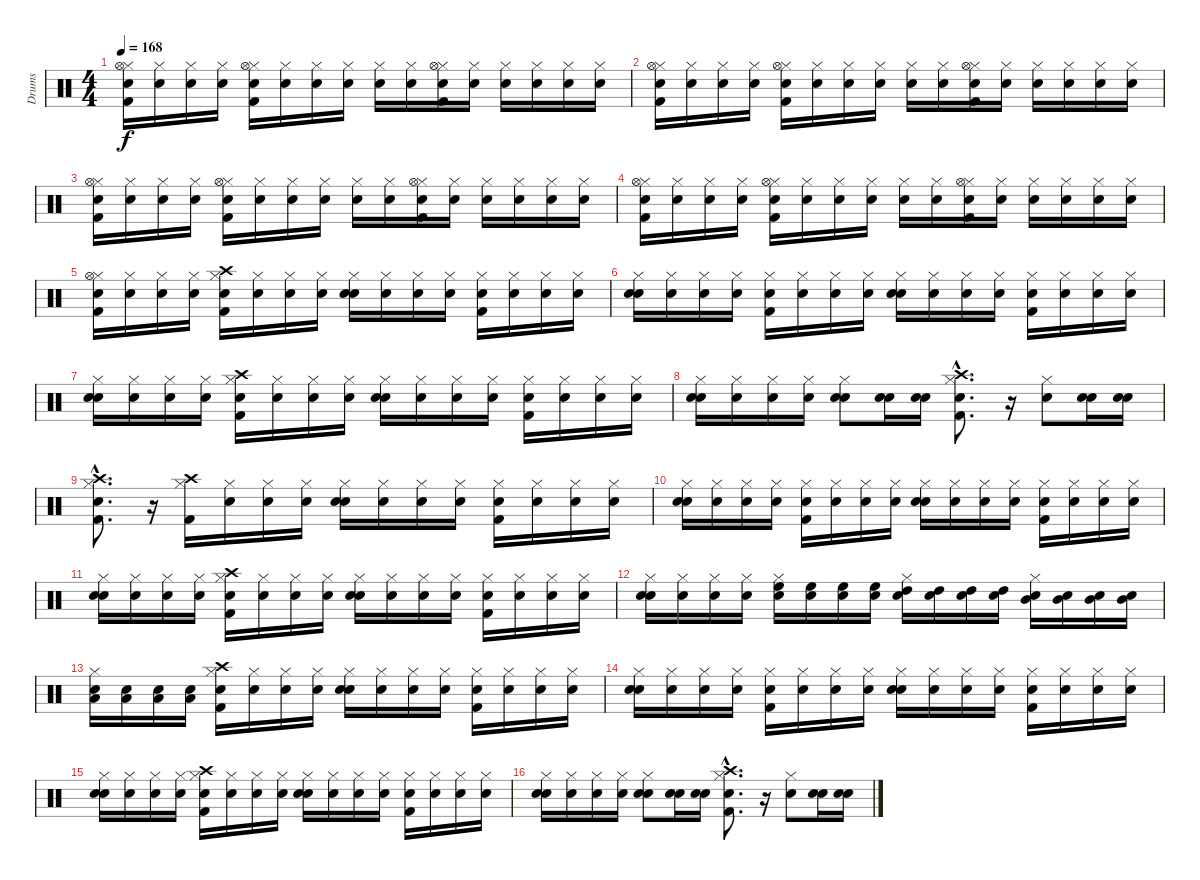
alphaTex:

\track ("Drums" "Drums") {instrument percussion}
\staff {score}
\articulation defaults
\ts (4 4)
\tempo 168
\clef neutral
\ks c
("Snare (hit)" "Kick (hit) 2" "Hi-Hat (closed)" "Hi-Hat (open)").16{dy f} ("Snare (hit)" "Hi-Hat (closed)").16 ("Snare (hit)" "Hi-Hat (closed)").16 ("Snare (hit)" "Hi-Hat (closed)").16 ("Snare (hit)" "Kick (hit) 2" "Hi-Hat (closed)" "Hi-Hat (open)").16 ("Snare (hit)" "Hi-Hat (closed)").16 ("Snare (hit)" "Hi-Hat (closed)").16 ("Snare (hit)" "Hi-Hat (closed)").16 ("Snare (hit)" "Hi-Hat (closed)").16 ("Snare (hit)" "Hi-Hat (closed)").16 ("Snare (hit)" "Kick (hit) 2" "Hi-Hat (closed)" "Hi-Hat (open)").16 ("Snare (hit)" "Hi-Hat (closed)").16 ("Snare (hit)" "Hi-Hat (closed)").16 ("Snare (hit)" "Hi-Hat (closed)").16 ("Snare (hit)" "Hi-Hat (closed)").16 ("Snare (hit)" "Hi-Hat (closed)").16 |
("Snare (hit)" "Kick (hit) 2" "Hi-Hat (closed)" "Hi-Hat (open)").16 ("Snare (hit)" "Hi-Hat (closed)").16 ("Snare (hit)" "Hi-Hat (closed)").16 ("Snare (hit)" "Hi-Hat (closed)").16 ("Snare (hit)" "Kick (hit) 2" "Hi-Hat (closed)" "Hi-Hat (open)").16 ("Snare (hit)" "Hi-Hat (closed)").16 ("Snare (hit)" "Hi-Hat (closed)").16 ("Snare (hit)" "Hi-Hat (closed)").16 ("Snare (hit)" "Hi-Hat (closed)").16 ("Snare (hit)" "Hi-Hat (closed)").16 ("Snare (hit)" "Kick (hit) 2" "Hi-Hat (closed)" "Hi-Hat (open)").16 ("Snare (hit)" "Hi-Hat (closed)").16 ("Snare (hit)" "Hi-Hat (closed)").16 ("Snare (hit)" "Hi-Hat (closed)").16 ("Snare (hit)" "Hi-Hat (closed)").16 ("Snare (hit)" "Hi-Hat (closed)").16 |
("Snare (hit)" "Kick (hit) 2" "Hi-Hat (closed)" "Hi-Hat (open)").16 ("Snare (hit)" "Hi-Hat (closed)").16 ("Snare (hit)" "Hi-Hat (closed)").16 ("Snare (hit)" "Hi-Hat (closed)").16 ("Snare (hit)" "Kick (hit) 2" "Hi-Hat (closed)" "Hi-Hat (open)").16 ("Snare (hit)" "Hi-Hat (closed)").16 ("Snare (hit)" "Hi-Hat (closed)").16 ("Snare (hit)" "Hi-Hat (closed)").16 ("Snare (hit)" "Hi-Hat (closed)").16 ("Snare (hit)" "Hi-Hat (closed)").16 ("Snare (hit)" "Kick (hit) 2" "Hi-Hat (closed)" "Hi-Hat (open)").16 ("Snare (hit)" "Hi-Hat (closed)").16 ("Snare (hit)" "Hi-Hat (closed)").16 ("Snare (hit)" "Hi-Hat (closed)").16 ("Snare (hit)" "Hi-Hat (closed)").16 ("Snare (hit)" "Hi-Hat (closed)").16 |
("Snare (hit)" "Kick (hit) 2" "Hi-Hat (closed)" "Hi-Hat (open)").16 ("Snare (hit)" "Hi-Hat (closed)").16 ("Snare (hit)" "Hi-Hat (closed)").16 ("Snare (hit)" "Hi-Hat (closed)").16 ("Snare (hit)" "Kick (hit) 2" "Hi-Hat (closed)" "Hi-Hat (open)").16 ("Snare (hit)" "Hi-Hat (closed)").16 ("Snare (hit)" "Hi-Hat (closed)").16 ("Snare (hit)" "Hi-Hat (closed)").16 ("Snare (hit)" "Hi-Hat (closed)").16 ("Snare (hit)" "Hi-Hat (closed)").16 ("Snare (hit)" "Kick (hit) 2" "Hi-Hat (closed)" "Hi-Hat (open)").16 ("Snare (hit)" "Hi-Hat (closed)").16 ("Snare (hit)" "Hi-Hat (closed)").16 ("Snare (hit)" "Hi-Hat (closed)").16 ("Snare (hit)" "Hi-Hat (closed)").16 ("Snare (hit)" "Hi-Hat (closed)").16 |
("Snare (hit)" "Kick (hit) 2" "Hi-Hat (closed)" "Hi-Hat (open)").16 ("Snare (hit)" "Hi-Hat (closed)").16 ("Snare (hit)" "Hi-Hat (closed)").16 ("Snare (hit)" "Hi-Hat (closed)").16 ("Snare (hit)" "Kick (hit) 2" "Hi-Hat (closed)" "Crash high (hit)").16 ("Snare (hit)" "Hi-Hat (closed)").16 ("Snare (hit)" "Hi-Hat (closed)").16 ("Snare (hit)" "Hi-Hat (closed)").16 ("Snare (hit)" "Snare (hit) 2" "Hi-Hat (closed)").16 ("Snare (hit)" "Hi-Hat (closed)").16 ("Snare (hit)" "Hi-Hat (closed)").16 ("Snare (hit)" "Hi-Hat (closed)").16 ("Snare (hit)" "Kick (hit) 2" "Hi-Hat (closed)").16 ("Snare (hit)" "Hi-Hat (closed)").16 ("Snare (hit)" "Hi-Hat (closed)").16 ("Snare (hit)" "Hi-Hat (closed)").16 |
("Snare (hit)" "Snare (hit) 2" "Hi-Hat (closed)").16 ("Snare (hit)" "Hi-Hat (closed)").16 ("Snare (hit)" "Hi-Hat (closed)").16 ("Snare (hit)" "Hi-Hat (closed)").16 ("Snare (hit)" "Kick (hit) 2" "Hi-Hat (closed)").16 ("Snare (hit)" "Hi-Hat (closed)").16 ("Snare (hit)" "Hi-Hat (closed)").16 ("Snare (hit)" "Hi-Hat (closed)").16 ("Snare (hit)" "Snare (hit) 2" "Hi-Hat (closed)").16 ("Snare (hit)" "Hi-Hat (closed)").16 ("Snare (hit)" "Hi-Hat (closed)").16 ("Snare (hit)" "Hi-Hat (closed)").16 ("Snare (hit)" "Kick (hit) 2" "Hi-Hat (closed)").16 ("Snare (hit)" "Hi-Hat (closed)").16 ("Snare (hit)" "Hi-Hat (closed)").16 ("Snare (hit)" "Hi-Hat (closed)").16 |
("Snare (hit)" "Snare (hit) 2" "Hi-Hat (closed)").16 ("Snare (hit)" "Hi-Hat (closed)").16 ("Snare (hit)" "Hi-Hat (closed)").16 ("Snare (hit)" "Hi-Hat (closed)").16 ("Snare (hit)" "Kick (hit) 2" "Hi-Hat (closed)" "Crash high (hit)").16 ("Snare (hit)" "Hi-Hat (closed)").16 ("Snare (hit)" "Hi-Hat (closed)").16 ("Snare (hit)" "Hi-Hat (closed)").16 ("Snare (hit)" "Snare (hit) 2" "Hi-Hat (closed)").16 ("Snare (hit)" "Hi-Hat (closed)").16 ("Snare (hit)" "Hi-Hat (closed)").16 ("Snare (hit)" "Hi-Hat (closed)").16 ("Snare (hit)" "Kick (hit) 2" "Hi-Hat (closed)").16 ("Snare (hit)" "Hi-Hat (closed)").16 ("Snare (hit)" "Hi-Hat (closed)").16 ("Snare (hit)" "Hi-Hat (closed)").16 |
("Snare (hit)" "Snare (hit) 2" "Hi-Hat (closed)").16 ("Snare (hit)" "Hi-Hat (closed)").16 ("Snare (hit)" "Hi-Hat (closed)").16 ("Snare (hit)" "Hi-Hat (closed)").16 ("Snare (hit)" "Snare (hit) 2" "Hi-Hat (closed)").8 ("Snare (hit)" "Snare (hit) 2").16 ("Snare (hit)" "Snare (hit) 2").16 ("Snare (hit)"{hac} "Kick (hit) 2"{hac} "Hi-Hat (closed)"{hac} "Crash high (hit)"{hac}).8{d} r.16 ("Snare (hit) 2" "Hi-Hat (closed)").8 ("Snare (hit)" "Snare (hit) 2").16 ("Snare (hit)" "Snare (hit) 2").16 |
("Snare (hit)"{hac} "Kick (hit) 2"{hac} "Hi-Hat (closed)"{hac} "Crash high (hit)"{hac}).8{d} r.16 ("Kick (hit) 2" "Hi-Hat (closed)" "Crash high (hit)").16 ("Snare (hit)" "Hi-Hat (closed)").16 ("Snare (hit)" "Hi-Hat (closed)").16 ("Snare (hit)" "Hi-Hat (closed)").16 ("Snare (hit)" "Snare (hit) 2" "Hi-Hat (closed)").16 ("Snare (hit)" "Hi-Hat (closed)").16 ("Snare (hit)" "Hi-Hat (closed)").16 ("Snare (hit)" "Hi-Hat (closed)").16 ("Snare (hit)" "Kick (hit) 2" "Hi-Hat (closed)").16 ("Snare (hit)" "Hi-Hat (closed)").16 ("Snare (hit)" "Hi-Hat (closed)").16 ("Snare (hit)" "Hi-Hat (closed)").16 |
("Snare (hit)" "Snare (hit) 2" "Hi-Hat (closed)").16 ("Snare (hit)" "Hi-Hat (closed)").16 ("Snare (hit)" "Hi-Hat (closed)").16 ("Snare (hit)" "Hi-Hat (closed)").16 ("Snare (hit)" "Kick (hit) 2" "Hi-Hat (closed)").16 ("Snare (hit)" "Hi-Hat (closed)").16 ("Snare (hit)" "Hi-Hat (closed)").16 ("Snare (hit)" "Hi-Hat (closed)").16 ("Snare (hit)" "Snare (hit) 2" "Hi-Hat (closed)").16 ("Snare (hit)" "Hi-Hat (closed)").16 ("Snare (hit)" "Hi-Hat (closed)").16 ("Snare (hit)" "Hi-Hat (closed)").16 ("Snare (hit)" "Kick (hit) 2" "Hi-Hat (closed)").16 ("Snare (hit)" "Hi-Hat (closed)").16 ("Snare (hit)" "Hi-Hat (closed)").16 ("Snare (hit)" "Hi-Hat (closed)").16 |
("Snare (hit)" "Snare (hit) 2" "Hi-Hat (closed)").16 ("Snare (hit)" "Hi-Hat (closed)").16 ("Snare (hit)" "Hi-Hat (closed)").16 ("Snare (hit)" "Hi-Hat (closed)").16 ("Snare (hit)" "Kick (hit) 2" "Hi-Hat (closed)" "Crash high (hit)").16 ("Snare (hit)" "Hi-Hat (closed)").16 ("Snare (hit)" "Hi-Hat (closed)").16 ("Snare (hit)" "Hi-Hat (closed)").16 ("Snare (hit)" "Snare (hit) 2" "Hi-Hat (closed)").16 ("Snare (hit)" "Hi-Hat (closed)").16 ("Snare (hit)" "Hi-Hat (closed)").16 ("Snare (hit)" "Hi-Hat (closed)").16 ("Snare (hit)" "Kick (hit) 2" "Hi-Hat (closed)").16 ("Snare (hit)" "Hi-Hat (closed)").16 ("Snare (hit)" "Hi-Hat (closed)").16 ("Snare (hit)" "Hi-Hat (closed)").16 |
("Snare (hit)" "Snare (hit) 2" "Hi-Hat (closed)").16 ("Snare (hit)" "Hi-Hat (closed)").16 ("Snare (hit)" "Hi-Hat (closed)").16 ("Snare (hit)" "Hi-Hat (closed)").16 ("Snare (hit)" "Hi-Hat (closed)" "High Floor Tom (hit)").16 ("Snare (hit)" "High Floor Tom (hit)").16 ("Snare (hit)" "High Floor Tom (hit)").16 ("Snare (hit)" "High Floor Tom (hit)").16 ("Snare (hit)" "Hi-Hat (closed)" "High Tom (hit)").16 ("Snare (hit)" "High Tom (hit)").16 ("Snare (hit)" "High Tom (hit)").16 ("Snare (hit)" "High Tom (hit)").16 ("Snare (hit)" "Hi-Hat (closed)" "Mid Tom (hit)").16 ("Snare (hit)" "Mid Tom (hit)").16 ("Snare (hit)" "Mid Tom (hit)").16 ("Snare (hit)" "Mid Tom (hit)").16 |
("Snare (hit)" "Hi-Hat (closed)" "Low Tom (hit)").16 ("Snare (hit)" "Low Tom (hit)").16 ("Snare (hit)" "Low Tom (hit)").16 ("Snare (hit)" "Low Tom (hit)").16 ("Snare (hit)" "Kick (hit) 2" "Hi-Hat (closed)" "Crash high (hit)").16 ("Snare (hit)" "Hi-Hat (closed)").16 ("Snare (hit)" "Hi-Hat (closed)").16 ("Snare (hit)" "Hi-Hat (closed)").16 ("Snare (hit)" "Snare (hit) 2" "Hi-Hat (closed)").16 ("Snare (hit)" "Hi-Hat (closed)").16 ("Snare (hit)" "Hi-Hat (closed)").16 ("Snare (hit)" "Hi-Hat (closed)").16 ("Snare (hit)" "Kick (hit) 2" "Hi-Hat (closed)").16 ("Snare (hit)" "Hi-Hat (closed)").16 ("Snare (hit)" "Hi-Hat (closed)").16 ("Snare (hit)" "Hi-Hat (closed)").16 |
("Snare (hit)" "Snare (hit) 2" "Hi-Hat (closed)").16 ("Snare (hit)" "Hi-Hat (closed)").16 ("Snare (hit)" "Hi-Hat (closed)").16 ("Snare (hit)" "Hi-Hat (closed)").16 ("Snare (hit)" "Kick (hit) 2" "Hi-Hat (closed)").16 ("Snare (hit)" "Hi-Hat (closed)").16 ("Snare (hit)" "Hi-Hat (closed)").16 ("Snare (hit)" "Hi-Hat (closed)").16 ("Snare (hit)" "Snare (hit) 2" "Hi-Hat (closed)").16 ("Snare (hit)" "Hi-Hat (closed)").16 ("Snare (hit)" "Hi-Hat (closed)").16 ("Snare (hit)" "Hi-Hat (closed)").16 ("Snare (hit)" "Kick (hit) 2" "Hi-Hat (closed)").16 ("Snare (hit)" "Hi-Hat (closed)").16 ("Snare (hit)" "Hi-Hat (closed)").16 ("Snare (hit)" "Hi-Hat (closed)").16 |
("Snare (hit)" "Snare (hit) 2" "Hi-Hat (closed)").16 ("Snare (hit)" "Hi-Hat (closed)").16 ("Snare (hit)" "Hi-Hat (closed)").16 ("Snare (hit)" "Hi-Hat (closed)").16 ("Snare (hit)" "Kick (hit) 2" "Hi-Hat (closed)" "Crash high (hit)").16 ("Snare (hit)" "Hi-Hat (closed)").16 ("Snare (hit)" "Hi-Hat (closed)").16 ("Snare (hit)" "Hi-Hat (closed)").16 ("Snare (hit)" "Snare (hit) 2" "Hi-Hat (closed)").16 ("Snare (hit)" "Hi-Hat (closed)").16 ("Snare (hit)" "Hi-Hat (closed)").16 ("Snare (hit)" "Hi-Hat (closed)").16 ("Snare (hit)" "Kick (hit) 2" "Hi-Hat (closed)").16 ("Snare (hit)" "Hi-Hat (closed)").16 ("Snare (hit)" "Hi-Hat (closed)").16 ("Snare (hit)" "Hi-Hat (closed)").16 |
("Snare (hit)" "Snare (hit) 2" "Hi-Hat (closed)").16 ("Snare (hit)" "Hi-Hat (closed)").16 ("Snare (hit)" "Hi-Hat (closed)").16 ("Snare (hit)" "Hi-Hat (closed)").16 ("Snare (hit)" "Snare (hit) 2" "Hi-Hat (closed)").8 ("Snare (hit)" "Snare (hit) 2").16 ("Snare (hit)" "Snare (hit) 2").16 ("Snare (hit)"{hac} "Kick (hit) 2"{hac} "Hi-Hat (closed)"{hac} "Crash high (hit)"{hac}).8{d} r.16 ("Snare (hit) 2" "Hi-Hat (closed)").8 ("Snare (hit)" "Snare (hit) 2").16 ("Snare (hit)" "Snare (hit) 2").16
